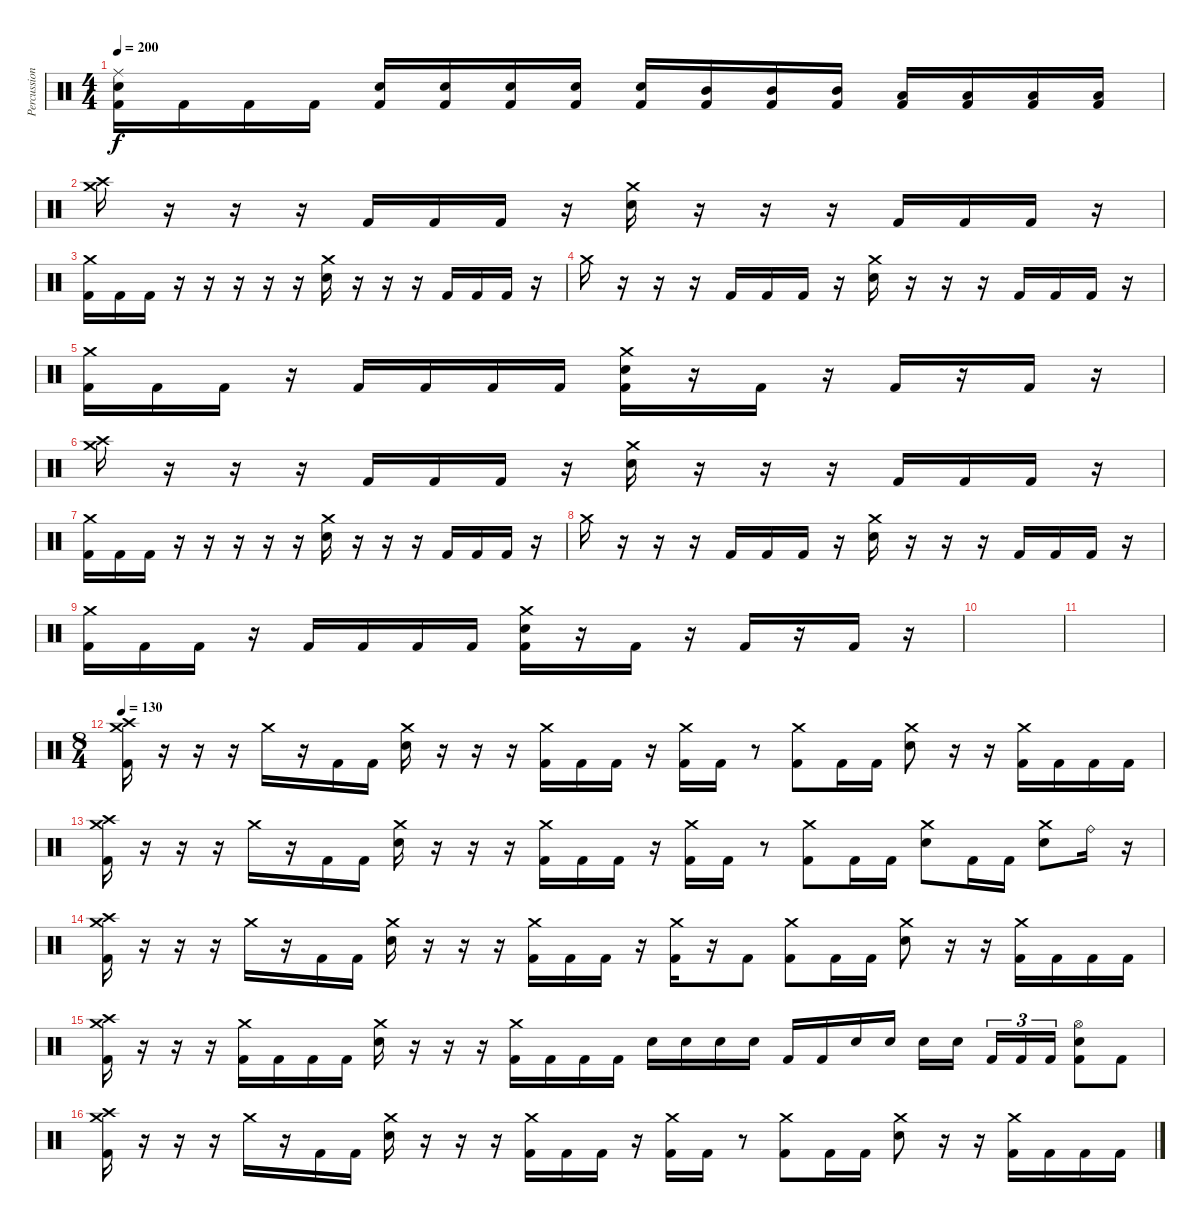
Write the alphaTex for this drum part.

\track ("Percussion" "Percussion") {instrument percussion}
\staff {score}
\articulation defaults
\ts (4 4)
\tempo 200
\clef neutral
\ks c
("Ride (middle)" "Electric Snare (hit)" "Kick (hit) 2").16{dy f} "Kick (hit) 2".16 "Kick (hit) 2".16 "Kick (hit) 2".16 ("Electric Snare (hit)" "Kick (hit) 2").16 ("Electric Snare (hit)" "Kick (hit) 2").16 ("Electric Snare (hit)" "Kick (hit) 2").16 ("Electric Snare (hit)" "Kick (hit) 2").16 ("Electric Snare (hit)" "Kick (hit) 2").16 ("Mid Tom (hit)" "Kick (hit) 2").16 ("Mid Tom (hit)" "Kick (hit) 2").16 ("Mid Tom (hit)" "Kick (hit) 2").16 ("Low Tom (hit)" "Kick (hit) 2").16 ("Low Tom (hit)" "Kick (hit) 2").16 ("Low Tom (hit)" "Kick (hit) 2").16 ("Low Tom (hit)" "Kick (hit) 2").16 |
("Crash medium (hit)" "Crash high (hit)").16 r.16 r.16 r.16 "Kick (hit) 2".16 "Kick (hit) 2".16 "Kick (hit) 2".16 r.16 ("Crash medium (hit)" "Electric Snare (hit)").16 r.16 r.16 r.16 "Kick (hit) 2".16 "Kick (hit) 2".16 "Kick (hit) 2".16 r.16 |
("Crash medium (hit)" "Kick (hit) 2").16 "Kick (hit) 2".16 "Kick (hit) 2".16 r.16 r.16 r.16 r.16 r.16 ("Crash medium (hit)" "Electric Snare (hit)").16 r.16 r.16 r.16 "Kick (hit) 2".16 "Kick (hit) 2".16 "Kick (hit) 2".16 r.16 |
"Crash medium (hit)".16 r.16 r.16 r.16 "Kick (hit) 2".16 "Kick (hit) 2".16 "Kick (hit) 2".16 r.16 ("Crash medium (hit)" "Electric Snare (hit)").16 r.16 r.16 r.16 "Kick (hit) 2".16 "Kick (hit) 2".16 "Kick (hit) 2".16 r.16 |
("Crash medium (hit)" "Kick (hit) 2").16 "Kick (hit) 2".16 "Kick (hit) 2".16 r.16 "Kick (hit) 2".16 "Kick (hit) 2".16 "Kick (hit) 2".16 "Kick (hit) 2".16 ("Crash medium (hit)" "Electric Snare (hit)" "Kick (hit) 2").16 r.16 "Kick (hit) 2".16 r.16 "Kick (hit) 2".16 r.16 "Kick (hit) 2".16 r.16 |
("Crash medium (hit)" "Crash high (hit)").16 r.16 r.16 r.16 "Kick (hit) 2".16 "Kick (hit) 2".16 "Kick (hit) 2".16 r.16 ("Crash medium (hit)" "Electric Snare (hit)").16 r.16 r.16 r.16 "Kick (hit) 2".16 "Kick (hit) 2".16 "Kick (hit) 2".16 r.16 |
("Crash medium (hit)" "Kick (hit) 2").16 "Kick (hit) 2".16 "Kick (hit) 2".16 r.16 r.16 r.16 r.16 r.16 ("Crash medium (hit)" "Electric Snare (hit)").16 r.16 r.16 r.16 "Kick (hit) 2".16 "Kick (hit) 2".16 "Kick (hit) 2".16 r.16 |
"Crash medium (hit)".16 r.16 r.16 r.16 "Kick (hit) 2".16 "Kick (hit) 2".16 "Kick (hit) 2".16 r.16 ("Crash medium (hit)" "Electric Snare (hit)").16 r.16 r.16 r.16 "Kick (hit) 2".16 "Kick (hit) 2".16 "Kick (hit) 2".16 r.16 |
("Crash medium (hit)" "Kick (hit) 2").16 "Kick (hit) 2".16 "Kick (hit) 2".16 r.16 "Kick (hit) 2".16 "Kick (hit) 2".16 "Kick (hit) 2".16 "Kick (hit) 2".16 ("Crash medium (hit)" "Electric Snare (hit)" "Kick (hit) 2").16 r.16 "Kick (hit) 2".16 r.16 "Kick (hit) 2".16 r.16 "Kick (hit) 2".16 r.16 |
|
|
\ts (8 4)
\tempo 130
("Crash medium (hit)" "Crash high (hit)" "Kick (hit) 2").16 r.16 r.16 r.16 "Crash medium (hit)".16 r.16 "Kick (hit) 2".16 "Kick (hit) 2".16 ("Crash medium (hit)" "Electric Snare (hit)").16 r.16 r.16 r.16 ("Crash medium (hit)" "Kick (hit) 2").16 "Kick (hit) 2".16 "Kick (hit) 2".16 r.16 ("Crash medium (hit)" "Kick (hit) 2").16 "Kick (hit) 2".16 r.8 ("Crash medium (hit)" "Kick (hit) 2").8 "Kick (hit) 2".16 "Kick (hit) 2".16 ("Crash medium (hit)" "Electric Snare (hit)").8 r.16 r.16 ("Crash medium (hit)" "Kick (hit) 2").16 "Kick (hit) 2".16 "Kick (hit) 2".16 "Kick (hit) 2".16 |
("Crash medium (hit)" "Crash high (hit)" "Kick (hit) 2").16 r.16 r.16 r.16 "Crash medium (hit)".16 r.16 "Kick (hit) 2".16 "Kick (hit) 2".16 ("Crash medium (hit)" "Electric Snare (hit)").16 r.16 r.16 r.16 ("Crash medium (hit)" "Kick (hit) 2").16 "Kick (hit) 2".16 "Kick (hit) 2".16 r.16 ("Crash medium (hit)" "Kick (hit) 2").16 "Kick (hit) 2".16 r.8 ("Crash medium (hit)" "Kick (hit) 2").8 "Kick (hit) 2".16 "Kick (hit) 2".16 ("Crash medium (hit)" "Electric Snare (hit)").8 "Kick (hit) 2".16 "Kick (hit) 2".16 ("Crash medium (hit)" "Electric Snare (hit)").8 "Ride (bell)".16 r.16 |
("Crash medium (hit)" "Crash high (hit)" "Kick (hit) 2").16 r.16 r.16 r.16 "Crash medium (hit)".16 r.16 "Kick (hit) 2".16 "Kick (hit) 2".16 ("Crash medium (hit)" "Electric Snare (hit)").16 r.16 r.16 r.16 ("Crash medium (hit)" "Kick (hit) 2").16 "Kick (hit) 2".16 "Kick (hit) 2".16 r.16 ("Crash medium (hit)" "Kick (hit) 2").16 r.16 "Kick (hit) 2".8 ("Crash medium (hit)" "Kick (hit) 2").8 "Kick (hit) 2".16 "Kick (hit) 2".16 ("Crash medium (hit)" "Electric Snare (hit)").8 r.16 r.16 ("Crash medium (hit)" "Kick (hit) 2").16 "Kick (hit) 2".16 "Kick (hit) 2".16 "Kick (hit) 2".16 |
("Crash medium (hit)" "Crash high (hit)" "Kick (hit) 2").16 r.16 r.16 r.16 ("Crash medium (hit)" "Kick (hit) 2").16 "Kick (hit) 2".16 "Kick (hit) 2".16 "Kick (hit) 2".16 ("Crash medium (hit)" "Electric Snare (hit)").16 r.16 r.16 r.16 ("Crash medium (hit)" "Kick (hit) 2").16 "Kick (hit) 2".16 "Kick (hit) 2".16 "Kick (hit) 2".16 "Electric Snare (hit)".16 "Electric Snare (hit)".16 "Electric Snare (hit)".16 "Electric Snare (hit)".16 "Kick (hit) 2".16 "Kick (hit) 2".16 "Electric Snare (hit)".16 "Electric Snare (hit)".16 "Electric Snare (hit)".16 "Electric Snare (hit)".16 "Kick (hit) 2".16{tu (3 2)} "Kick (hit) 2".16{tu (3 2)} "Kick (hit) 2".16{tu (3 2)} ("Hi-Hat (open)" "Electric Snare (hit)" "Kick (hit) 2").8 "Kick (hit) 2".8 |
("Crash medium (hit)" "Crash high (hit)" "Kick (hit) 2").16 r.16 r.16 r.16 "Crash medium (hit)".16 r.16 "Kick (hit) 2".16 "Kick (hit) 2".16 ("Crash medium (hit)" "Electric Snare (hit)").16 r.16 r.16 r.16 ("Crash medium (hit)" "Kick (hit) 2").16 "Kick (hit) 2".16 "Kick (hit) 2".16 r.16 ("Crash medium (hit)" "Kick (hit) 2").16 "Kick (hit) 2".16 r.8 ("Crash medium (hit)" "Kick (hit) 2").8 "Kick (hit) 2".16 "Kick (hit) 2".16 ("Crash medium (hit)" "Electric Snare (hit)").8 r.16 r.16 ("Crash medium (hit)" "Kick (hit) 2").16 "Kick (hit) 2".16 "Kick (hit) 2".16 "Kick (hit) 2".16
